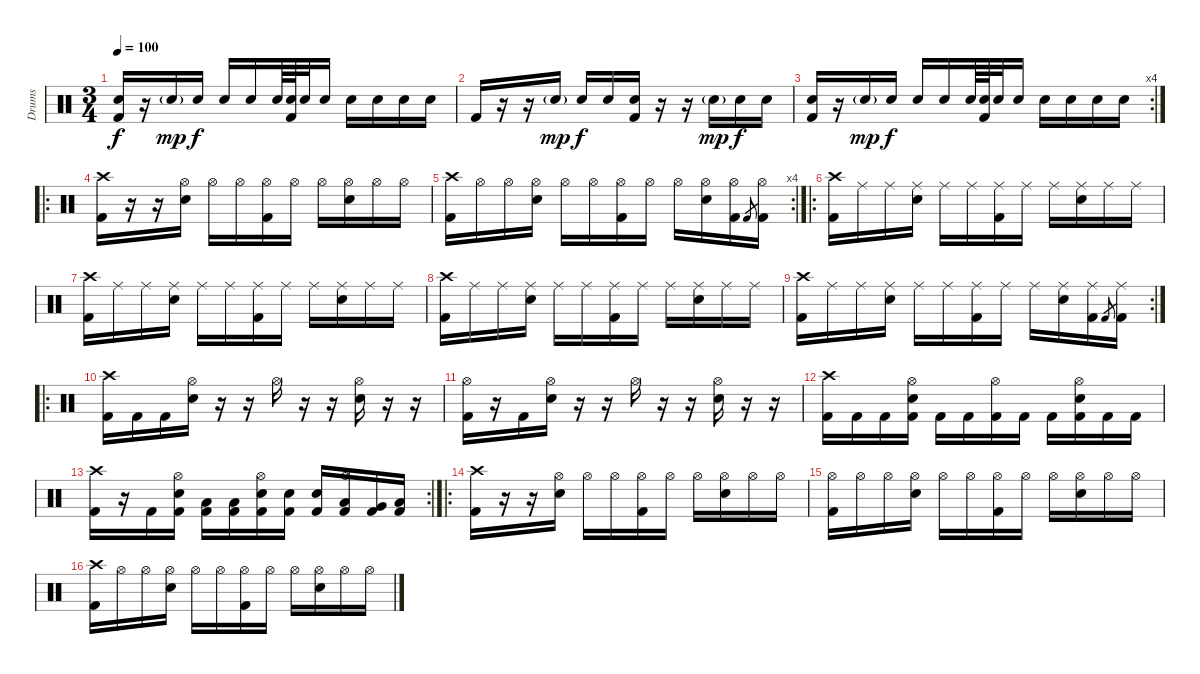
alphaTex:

\track ("Drums" "Drums") {instrument percussion}
\staff {score}
\articulation defaults
\ts (3 4)
\tempo 100
\clef neutral
\ks c
("Electric Snare (hit)" "Kick (hit) 2").16{dy f} r.16 "Electric Snare (hit)"{g}.16{dy mp} "Electric Snare (hit)".16{dy f} "Electric Snare (hit)".16 "Electric Snare (hit)".16 "Electric Snare (hit)".64 ("Electric Snare (hit)" "Kick (hit) 2").64 "Electric Snare (hit)".32 "Electric Snare (hit)".16 "Electric Snare (hit)".16 "Electric Snare (hit)".16 "Electric Snare (hit)".16 "Electric Snare (hit)".16 |
"Kick (hit) 2".16 r.16 r.16 "Electric Snare (hit)"{g}.16{dy mp} "Electric Snare (hit)".16{dy f} "Electric Snare (hit)".16 ("Electric Snare (hit)" "Kick (hit) 2").16 r.16 r.16 "Electric Snare (hit)"{g}.16{dy mp} "Electric Snare (hit)".16{dy f} "Electric Snare (hit)".16 |
\rc 4
("Electric Snare (hit)" "Kick (hit) 2").16 r.16 "Electric Snare (hit)"{g}.16{dy mp} "Electric Snare (hit)".16{dy f} "Electric Snare (hit)".16 "Electric Snare (hit)".16 "Electric Snare (hit)".64 ("Electric Snare (hit)" "Kick (hit) 2").64 "Electric Snare (hit)".32 "Electric Snare (hit)".16 "Electric Snare (hit)".16 "Electric Snare (hit)".16 "Electric Snare (hit)".16 "Electric Snare (hit)".16 |
\ro
("Crash high (hit)" "Kick (hit) 2").16 r.16 r.16 ("Hi-Hat (open)" "Electric Snare (hit)").16 "Hi-Hat (open)".16 "Hi-Hat (open)".16 ("Hi-Hat (open)" "Kick (hit) 2").16 "Hi-Hat (open)".16 "Hi-Hat (open)".16 ("Hi-Hat (open)" "Electric Snare (hit)").16 "Hi-Hat (open)".16 "Hi-Hat (open)".16 |
\rc 4
("Crash high (hit)" "Kick (hit) 2").16 "Hi-Hat (open)".16 "Hi-Hat (open)".16 ("Hi-Hat (open)" "Electric Snare (hit)").16 "Hi-Hat (open)".16 "Hi-Hat (open)".16 ("Hi-Hat (open)" "Kick (hit) 2").16 "Hi-Hat (open)".16 "Hi-Hat (open)".16 ("Hi-Hat (open)" "Electric Snare (hit)").16 ("Hi-Hat (open)" "Kick (hit) 2").16 "Kick (hit) 2".8{gr} ("Hi-Hat (open)" "Kick (hit) 2").16 |
\ro
("Crash high (hit)" "Kick (hit) 2").16 "Ride (middle)".16 "Ride (middle)".16 ("Ride (middle)" "Electric Snare (hit)").16 "Ride (middle)".16 "Ride (middle)".16 ("Ride (middle)" "Kick (hit) 2").16 "Ride (middle)".16 "Ride (middle)".16 ("Ride (middle)" "Electric Snare (hit)").16 "Ride (middle)".16 "Ride (middle)".16 |
("Crash high (hit)" "Kick (hit) 2").16 "Ride (middle)".16 "Ride (middle)".16 ("Ride (middle)" "Electric Snare (hit)").16 "Ride (middle)".16 "Ride (middle)".16 ("Ride (middle)" "Kick (hit) 2").16 "Ride (middle)".16 "Ride (middle)".16 ("Ride (middle)" "Electric Snare (hit)").16 "Ride (middle)".16 "Ride (middle)".16 |
("Crash high (hit)" "Kick (hit) 2").16 "Ride (middle)".16 "Ride (middle)".16 ("Ride (middle)" "Electric Snare (hit)").16 "Ride (middle)".16 "Ride (middle)".16 ("Ride (middle)" "Kick (hit) 2").16 "Ride (middle)".16 "Ride (middle)".16 ("Ride (middle)" "Electric Snare (hit)").16 "Ride (middle)".16 "Ride (middle)".16 |
\rc 2
("Crash high (hit)" "Kick (hit) 2").16 "Ride (middle)".16 "Ride (middle)".16 ("Ride (middle)" "Electric Snare (hit)").16 "Ride (middle)".16 "Ride (middle)".16 ("Ride (middle)" "Kick (hit) 2").16 "Ride (middle)".16 "Ride (middle)".16 ("Ride (middle)" "Electric Snare (hit)").16 ("Ride (middle)" "Kick (hit) 2").16 "Kick (hit) 2".8{gr} ("Ride (middle)" "Kick (hit) 2").16 |
\ro
("Crash high (hit)" "Kick (hit) 2").16 "Kick (hit) 2".16 "Kick (hit) 2".16 ("Hi-Hat (open)" "Electric Snare (hit)").16 r.16 r.16 "Hi-Hat (open)".16 r.16 r.16 ("Hi-Hat (open)" "Electric Snare (hit)").16 r.16 r.16 |
("Hi-Hat (open)" "Kick (hit) 2").16 r.16 "Kick (hit) 2".16 ("Hi-Hat (open)" "Electric Snare (hit)").16 r.16 r.16 "Hi-Hat (open)".16 r.16 r.16 ("Hi-Hat (open)" "Electric Snare (hit)").16 r.16 r.16 |
("Crash high (hit)" "Kick (hit) 2").16 "Kick (hit) 2".16 "Kick (hit) 2".16 ("Hi-Hat (open)" "Electric Snare (hit)" "Kick (hit) 2").16 "Kick (hit) 2".16 "Kick (hit) 2".16 ("Hi-Hat (open)" "Kick (hit) 2").16 "Kick (hit) 2".16 "Kick (hit) 2".16 ("Hi-Hat (open)" "Electric Snare (hit)" "Kick (hit) 2").16 "Kick (hit) 2".16 "Kick (hit) 2".16 |
\rc 2
("Crash high (hit)" "Kick (hit) 2").16 r.16 "Kick (hit) 2".16 ("Hi-Hat (open)" "Electric Snare (hit)" "Kick (hit) 2").16 ("Low Floor Tom (hit)" "Kick (hit) 2").16 ("Low Floor Tom (hit)" "Kick (hit) 2").16 ("Hi-Hat (open)" "Electric Snare (hit)" "Kick (hit) 2").16 ("Electric Snare (hit)" "Kick (hit) 2").16 ("Electric Snare (hit)" "Kick (hit) 2").16 ("Hi-Hat (open)" "Low Tom (hit)" "Kick (hit) 2").16 ("Very Low Tom (hit)" "Kick (hit) 2").16 ("Low Floor Tom (hit)" "Kick (hit) 2").16 |
\ro
("Crash high (hit)" "Kick (hit) 2").16 r.16 r.16 ("Hi-Hat (open)" "Electric Snare (hit)").16 "Hi-Hat (open)".16 "Hi-Hat (open)".16 ("Hi-Hat (open)" "Kick (hit) 2").16 "Hi-Hat (open)".16 "Hi-Hat (open)".16 ("Hi-Hat (open)" "Electric Snare (hit)").16 "Hi-Hat (open)".16 "Hi-Hat (open)".16 |
("Hi-Hat (open)" "Kick (hit) 2").16 "Hi-Hat (open)".16 "Hi-Hat (open)".16 ("Hi-Hat (open)" "Electric Snare (hit)").16 "Hi-Hat (open)".16 "Hi-Hat (open)".16 ("Hi-Hat (open)" "Kick (hit) 2").16 "Hi-Hat (open)".16 "Hi-Hat (open)".16 ("Hi-Hat (open)" "Electric Snare (hit)").16 "Hi-Hat (open)".16 "Hi-Hat (open)".16 |
("Crash high (hit)" "Kick (hit) 2").16 "Hi-Hat (open)".16 "Hi-Hat (open)".16 ("Hi-Hat (open)" "Electric Snare (hit)").16 "Hi-Hat (open)".16 "Hi-Hat (open)".16 ("Hi-Hat (open)" "Kick (hit) 2").16 "Hi-Hat (open)".16 "Hi-Hat (open)".16 ("Hi-Hat (open)" "Electric Snare (hit)").16 "Hi-Hat (open)".16 "Hi-Hat (open)".16
